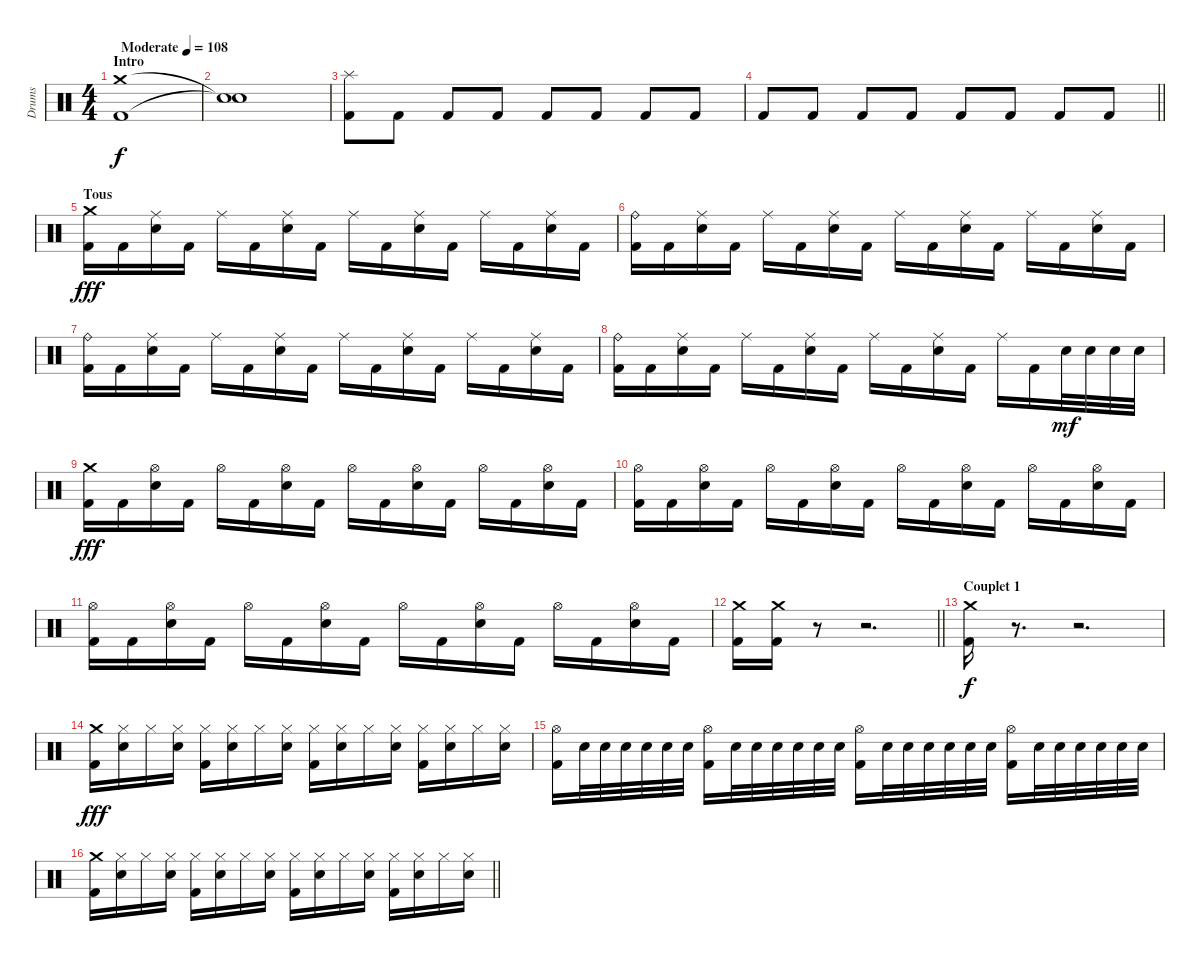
\track ("Drums" "Drums") {instrument percussion}
\staff {score}
\articulation defaults
\ts (4 4)
\section ("" "Intro")
\tempo (108 "Moderate")
\clef neutral
\ks c
("Crash medium (hit)" "Kick (hit) 2").1{dy f} |
("Snare (hit)"{t} "Snare (hit)"{t}).1 |
("Splash (hit)" "Kick (hit) 2").8 "Kick (hit) 2".8 "Kick (hit) 2".8 "Kick (hit) 2".8 "Kick (hit) 2".8 "Kick (hit) 2".8 "Kick (hit) 2".8 "Kick (hit) 2".8 |
\barLineRight lightlight "Kick (hit) 2".8 "Kick (hit) 2".8 "Kick (hit) 2".8 "Kick (hit) 2".8 "Kick (hit) 2".8 "Kick (hit) 2".8 "Kick (hit) 2".8 "Kick (hit) 2".8
|
\section ("" "Tous")
("Crash medium (hit)" "Kick (hit) 2").16{dy fff} "Kick (hit) 2".16 ("Ride (middle)" "Electric Snare (hit)").16 "Kick (hit) 2".16 "Ride (middle)".16 "Kick (hit) 2".16 ("Ride (middle)" "Electric Snare (hit)").16 "Kick (hit) 2".16 "Ride (middle)".16 "Kick (hit) 2".16 ("Ride (middle)" "Electric Snare (hit)").16 "Kick (hit) 2".16 "Ride (middle)".16 "Kick (hit) 2".16 ("Ride (middle)" "Electric Snare (hit)").16 "Kick (hit) 2".16 |
("Ride (bell)" "Kick (hit) 2").16 "Kick (hit) 2".16 ("Ride (middle)" "Electric Snare (hit)").16 "Kick (hit) 2".16 "Ride (middle)".16 "Kick (hit) 2".16 ("Ride (middle)" "Electric Snare (hit)").16 "Kick (hit) 2".16 "Ride (middle)".16 "Kick (hit) 2".16 ("Ride (middle)" "Electric Snare (hit)").16 "Kick (hit) 2".16 "Ride (middle)".16 "Kick (hit) 2".16 ("Ride (middle)" "Electric Snare (hit)").16 "Kick (hit) 2".16 |
("Ride (bell)" "Kick (hit) 2").16 "Kick (hit) 2".16 ("Ride (middle)" "Electric Snare (hit)").16 "Kick (hit) 2".16 "Ride (middle)".16 "Kick (hit) 2".16 ("Ride (middle)" "Electric Snare (hit)").16 "Kick (hit) 2".16 "Ride (middle)".16 "Kick (hit) 2".16 ("Ride (middle)" "Electric Snare (hit)").16 "Kick (hit) 2".16 "Ride (middle)".16 "Kick (hit) 2".16 ("Ride (middle)" "Electric Snare (hit)").16 "Kick (hit) 2".16 |
("Ride (bell)" "Kick (hit) 2").16 "Kick (hit) 2".16 ("Ride (middle)" "Electric Snare (hit)").16 "Kick (hit) 2".16 "Ride (middle)".16 "Kick (hit) 2".16 ("Ride (middle)" "Electric Snare (hit)").16 "Kick (hit) 2".16 "Ride (middle)".16 "Kick (hit) 2".16 ("Ride (middle)" "Electric Snare (hit)").16 "Kick (hit) 2".16 "Ride (middle)".16 "Kick (hit) 2".16 "Electric Snare (hit)".32{dy mf} "Electric Snare (hit)".32 "Electric Snare (hit)".32 "Electric Snare (hit)".32 |
("Crash medium (hit)" "Kick (hit) 2").16{dy fff} "Kick (hit) 2".16 ("Hi-Hat (open)" "Electric Snare (hit)").16 "Kick (hit) 2".16 "Hi-Hat (open)".16 "Kick (hit) 2".16 ("Hi-Hat (open)" "Electric Snare (hit)").16 "Kick (hit) 2".16 "Hi-Hat (open)".16 "Kick (hit) 2".16 ("Hi-Hat (open)" "Electric Snare (hit)").16 "Kick (hit) 2".16 "Hi-Hat (open)".16 "Kick (hit) 2".16 ("Hi-Hat (open)" "Electric Snare (hit)").16 "Kick (hit) 2".16 |
("Hi-Hat (open)" "Kick (hit) 2").16 "Kick (hit) 2".16 ("Hi-Hat (open)" "Electric Snare (hit)").16 "Kick (hit) 2".16 "Hi-Hat (open)".16 "Kick (hit) 2".16 ("Hi-Hat (open)" "Electric Snare (hit)").16 "Kick (hit) 2".16 "Hi-Hat (open)".16 "Kick (hit) 2".16 ("Hi-Hat (open)" "Electric Snare (hit)").16 "Kick (hit) 2".16 "Hi-Hat (open)".16 "Kick (hit) 2".16 ("Hi-Hat (open)" "Electric Snare (hit)").16 "Kick (hit) 2".16 |
("Hi-Hat (open)" "Kick (hit) 2").16 "Kick (hit) 2".16 ("Hi-Hat (open)" "Electric Snare (hit)").16 "Kick (hit) 2".16 "Hi-Hat (open)".16 "Kick (hit) 2".16 ("Hi-Hat (open)" "Electric Snare (hit)").16 "Kick (hit) 2".16 "Hi-Hat (open)".16 "Kick (hit) 2".16 ("Hi-Hat (open)" "Electric Snare (hit)").16 "Kick (hit) 2".16 "Hi-Hat (open)".16 "Kick (hit) 2".16 ("Hi-Hat (open)" "Electric Snare (hit)").16 "Kick (hit) 2".16 |
\barLineRight lightlight
("Crash medium (hit)" "Kick (hit) 2").16 ("Crash medium (hit)" "Kick (hit) 2").16 r.8 r.2{d} |
\section ("" "Couplet 1")
("Crash medium (hit)" "Kick (hit) 2").16{dy f} r.8{d} r.2{d} |
("Crash medium (hit)" "Kick (hit) 2").16{dy fff} ("Hi-Hat (closed)" "Electric Snare (hit)").16 "Hi-Hat (closed)".16 ("Hi-Hat (closed)" "Electric Snare (hit)").16 ("Hi-Hat (closed)" "Kick (hit) 2").16 ("Hi-Hat (closed)" "Electric Snare (hit)").16 "Hi-Hat (closed)".16 ("Hi-Hat (closed)" "Electric Snare (hit)").16 ("Hi-Hat (closed)" "Kick (hit) 2").16 ("Hi-Hat (closed)" "Electric Snare (hit)").16 "Hi-Hat (closed)".16 ("Hi-Hat (closed)" "Electric Snare (hit)").16 ("Hi-Hat (closed)" "Kick (hit) 2").16 ("Hi-Hat (closed)" "Electric Snare (hit)").16 "Hi-Hat (closed)".16 ("Hi-Hat (closed)" "Electric Snare (hit)").16 |
("Hi-Hat (open)" "Kick (hit) 2").16 "Electric Snare (hit)".32 "Electric Snare (hit)".32 "Electric Snare (hit)".32 "Electric Snare (hit)".32 "Electric Snare (hit)".32 "Electric Snare (hit)".32 ("Hi-Hat (open)" "Kick (hit) 2").16 "Electric Snare (hit)".32 "Electric Snare (hit)".32 "Electric Snare (hit)".32 "Electric Snare (hit)".32 "Electric Snare (hit)".32 "Electric Snare (hit)".32 ("Hi-Hat (open)" "Kick (hit) 2").16 "Electric Snare (hit)".32 "Electric Snare (hit)".32 "Electric Snare (hit)".32 "Electric Snare (hit)".32 "Electric Snare (hit)".32 "Electric Snare (hit)".32 ("Hi-Hat (open)" "Kick (hit) 2").16 "Electric Snare (hit)".32 "Electric Snare (hit)".32 "Electric Snare (hit)".32 "Electric Snare (hit)".32 "Electric Snare (hit)".32 "Electric Snare (hit)".32 |
\barLineRight lightlight
("Crash medium (hit)" "Kick (hit) 2").16 ("Hi-Hat (closed)" "Electric Snare (hit)").16 "Hi-Hat (closed)".16 ("Hi-Hat (closed)" "Electric Snare (hit)").16 ("Hi-Hat (closed)" "Kick (hit) 2").16 ("Hi-Hat (closed)" "Electric Snare (hit)").16 "Hi-Hat (closed)".16 ("Hi-Hat (closed)" "Electric Snare (hit)").16 ("Hi-Hat (closed)" "Kick (hit) 2").16 ("Hi-Hat (closed)" "Electric Snare (hit)").16 "Hi-Hat (closed)".16 ("Hi-Hat (closed)" "Electric Snare (hit)").16 ("Hi-Hat (closed)" "Kick (hit) 2").16 ("Hi-Hat (closed)" "Electric Snare (hit)").16 "Hi-Hat (closed)".16 ("Hi-Hat (closed)" "Electric Snare (hit)").16
